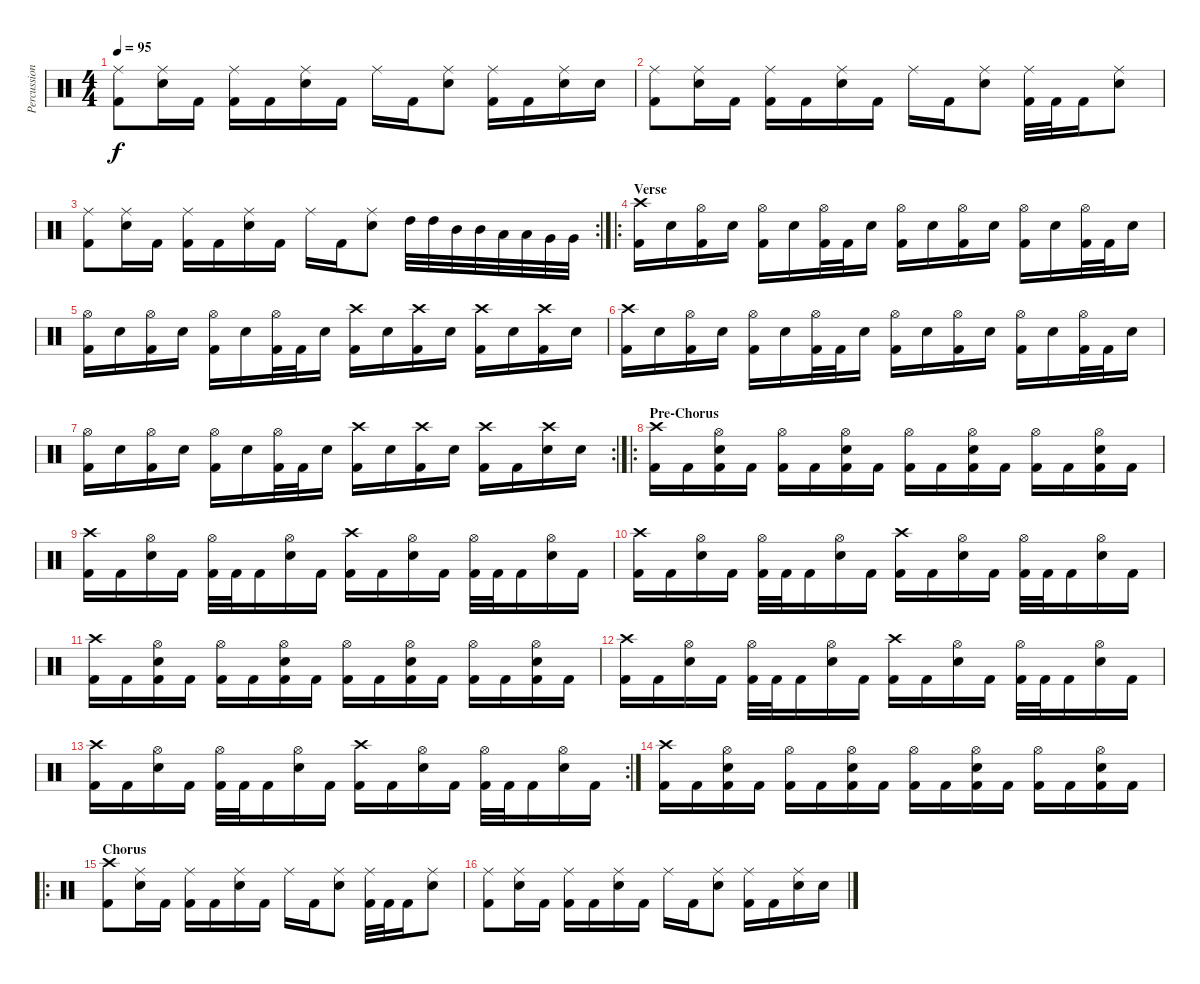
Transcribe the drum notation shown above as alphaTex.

\track ("Percussion" "Percussion") {instrument percussion}
\staff {score}
\articulation defaults
\ts (4 4)
\tempo 95
\clef neutral
\ks c
("Kick (hit) 2" "Ride (middle)").8{dy f} ("Ride (middle)" "Snare (hit) 2").16 "Kick (hit) 2".16 ("Kick (hit) 2" "Ride (middle)").16 "Kick (hit) 2".16 ("Ride (middle)" "Snare (hit) 2").16 "Kick (hit) 2".16 "Ride (middle)".16 "Kick (hit) 2".16 ("Ride (middle)" "Snare (hit) 2").8 ("Kick (hit) 2" "Ride (middle)").16 "Kick (hit) 2".16 ("Ride (middle)" "Snare (hit) 2").16 "Snare (hit) 2".16 |
("Kick (hit) 2" "Ride (middle)").8 ("Ride (middle)" "Snare (hit) 2").16 "Kick (hit) 2".16 ("Kick (hit) 2" "Ride (middle)").16 "Kick (hit) 2".16 ("Ride (middle)" "Snare (hit) 2").16 "Kick (hit) 2".16 "Ride (middle)".16 "Kick (hit) 2".16 ("Ride (middle)" "Snare (hit) 2").8 ("Kick (hit) 2" "Ride (middle)").32 "Kick (hit) 2".32 "Kick (hit) 2".16 ("Ride (middle)" "Snare (hit) 2").8 |
\rc 2
("Kick (hit) 2" "Ride (middle)").8 ("Ride (middle)" "Snare (hit) 2").16 "Kick (hit) 2".16 ("Kick (hit) 2" "Ride (middle)").16 "Kick (hit) 2".16 ("Ride (middle)" "Snare (hit) 2").16 "Kick (hit) 2".16 "Ride (middle)".16 "Kick (hit) 2".16 ("Ride (middle)" "Snare (hit) 2").8 "High Tom (hit)".32 "High Tom (hit)".32 "Mid Tom (hit)".32 "Mid Tom (hit)".32 "Low Tom (hit)".32 "Low Tom (hit)".32 "Very Low Tom (hit)".32 "Very Low Tom (hit)".32 |
\ro
\section ("" "Verse")
("Kick (hit) 2" "Crash high (hit)").16 "Snare (hit) 2".16 ("Kick (hit) 2" "Hi-Hat (open)").16 "Snare (hit) 2".16 ("Kick (hit) 2" "Hi-Hat (open)").16 "Snare (hit) 2".16 ("Kick (hit) 2" "Hi-Hat (open)").32 "Kick (hit) 2".32 "Snare (hit) 2".16 ("Kick (hit) 2" "Hi-Hat (open)").16 "Snare (hit) 2".16 ("Kick (hit) 2" "Hi-Hat (open)").16 "Snare (hit) 2".16 ("Kick (hit) 2" "Hi-Hat (open)").16 "Snare (hit) 2".16 ("Kick (hit) 2" "Hi-Hat (open)").32 "Kick (hit) 2".32 "Snare (hit) 2".16 |
("Kick (hit) 2" "Hi-Hat (open)").16 "Snare (hit) 2".16 ("Kick (hit) 2" "Hi-Hat (open)").16 "Snare (hit) 2".16 ("Kick (hit) 2" "Hi-Hat (open)").16 "Snare (hit) 2".16 ("Kick (hit) 2" "Hi-Hat (open)").32 "Kick (hit) 2".32 "Snare (hit) 2".16 ("Kick (hit) 2" "Crash high (hit)").16 "Snare (hit) 2".16 ("Kick (hit) 2" "Crash high (hit)").16 "Snare (hit) 2".16 ("Kick (hit) 2" "Crash high (hit)").16 "Snare (hit) 2".16 ("Kick (hit) 2" "Crash high (hit)").16 "Snare (hit) 2".16 |
("Kick (hit) 2" "Crash high (hit)").16 "Snare (hit) 2".16 ("Kick (hit) 2" "Hi-Hat (open)").16 "Snare (hit) 2".16 ("Kick (hit) 2" "Hi-Hat (open)").16 "Snare (hit) 2".16 ("Kick (hit) 2" "Hi-Hat (open)").32 "Kick (hit) 2".32 "Snare (hit) 2".16 ("Kick (hit) 2" "Hi-Hat (open)").16 "Snare (hit) 2".16 ("Kick (hit) 2" "Hi-Hat (open)").16 "Snare (hit) 2".16 ("Kick (hit) 2" "Hi-Hat (open)").16 "Snare (hit) 2".16 ("Kick (hit) 2" "Hi-Hat (open)").32 "Kick (hit) 2".32 "Snare (hit) 2".16 |
\rc 2
("Kick (hit) 2" "Hi-Hat (open)").16 "Snare (hit) 2".16 ("Kick (hit) 2" "Hi-Hat (open)").16 "Snare (hit) 2".16 ("Kick (hit) 2" "Hi-Hat (open)").16 "Snare (hit) 2".16 ("Kick (hit) 2" "Hi-Hat (open)").32 "Kick (hit) 2".32 "Snare (hit) 2".16 ("Kick (hit) 2" "Crash high (hit)").16 "Snare (hit) 2".16 ("Kick (hit) 2" "Crash high (hit)").16 "Snare (hit) 2".16 ("Kick (hit) 2" "Crash high (hit)").16 "Kick (hit) 2".16 ("Crash high (hit)" "Snare (hit) 2").16 "Snare (hit) 2".16 |
\ro
\section ("" "Pre-Chorus")
("Kick (hit) 2" "Crash high (hit)").16 "Kick (hit) 2".16 ("Kick (hit) 2" "Snare (hit) 2" "Hi-Hat (open)").16 "Kick (hit) 2".16 ("Kick (hit) 2" "Hi-Hat (open)").16 "Kick (hit) 2".16 ("Kick (hit) 2" "Snare (hit) 2" "Hi-Hat (open)").16 "Kick (hit) 2".16 ("Kick (hit) 2" "Hi-Hat (open)").16 "Kick (hit) 2".16 ("Kick (hit) 2" "Snare (hit) 2" "Hi-Hat (open)").16 "Kick (hit) 2".16 ("Kick (hit) 2" "Hi-Hat (open)").16 "Kick (hit) 2".16 ("Kick (hit) 2" "Snare (hit) 2" "Hi-Hat (open)").16 "Kick (hit) 2".16 |
("Kick (hit) 2" "Crash high (hit)").16 "Kick (hit) 2".16 ("Snare (hit) 2" "Hi-Hat (open)").16 "Kick (hit) 2".16 ("Kick (hit) 2" "Hi-Hat (open)").32 "Kick (hit) 2".32 "Kick (hit) 2".16 ("Snare (hit) 2" "Hi-Hat (open)").16 "Kick (hit) 2".16 ("Kick (hit) 2" "Crash high (hit)").16 "Kick (hit) 2".16 ("Snare (hit) 2" "Hi-Hat (open)").16 "Kick (hit) 2".16 ("Kick (hit) 2" "Hi-Hat (open)").32 "Kick (hit) 2".32 "Kick (hit) 2".16 ("Snare (hit) 2" "Hi-Hat (open)").16 "Kick (hit) 2".16 |
("Kick (hit) 2" "Crash high (hit)").16 "Kick (hit) 2".16 ("Snare (hit) 2" "Hi-Hat (open)").16 "Kick (hit) 2".16 ("Kick (hit) 2" "Hi-Hat (open)").32 "Kick (hit) 2".32 "Kick (hit) 2".16 ("Snare (hit) 2" "Hi-Hat (open)").16 "Kick (hit) 2".16 ("Kick (hit) 2" "Crash high (hit)").16 "Kick (hit) 2".16 ("Snare (hit) 2" "Hi-Hat (open)").16 "Kick (hit) 2".16 ("Kick (hit) 2" "Hi-Hat (open)").32 "Kick (hit) 2".32 "Kick (hit) 2".16 ("Snare (hit) 2" "Hi-Hat (open)").16 "Kick (hit) 2".16 |
("Kick (hit) 2" "Crash high (hit)").16 "Kick (hit) 2".16 ("Kick (hit) 2" "Snare (hit) 2" "Hi-Hat (open)").16 "Kick (hit) 2".16 ("Kick (hit) 2" "Hi-Hat (open)").16 "Kick (hit) 2".16 ("Kick (hit) 2" "Snare (hit) 2" "Hi-Hat (open)").16 "Kick (hit) 2".16 ("Kick (hit) 2" "Hi-Hat (open)").16 "Kick (hit) 2".16 ("Kick (hit) 2" "Snare (hit) 2" "Hi-Hat (open)").16 "Kick (hit) 2".16 ("Kick (hit) 2" "Hi-Hat (open)").16 "Kick (hit) 2".16 ("Kick (hit) 2" "Snare (hit) 2" "Hi-Hat (open)").16 "Kick (hit) 2".16 |
("Kick (hit) 2" "Crash high (hit)").16 "Kick (hit) 2".16 ("Snare (hit) 2" "Hi-Hat (open)").16 "Kick (hit) 2".16 ("Kick (hit) 2" "Hi-Hat (open)").32 "Kick (hit) 2".32 "Kick (hit) 2".16 ("Snare (hit) 2" "Hi-Hat (open)").16 "Kick (hit) 2".16 ("Kick (hit) 2" "Crash high (hit)").16 "Kick (hit) 2".16 ("Snare (hit) 2" "Hi-Hat (open)").16 "Kick (hit) 2".16 ("Kick (hit) 2" "Hi-Hat (open)").32 "Kick (hit) 2".32 "Kick (hit) 2".16 ("Snare (hit) 2" "Hi-Hat (open)").16 "Kick (hit) 2".16 |
\rc 2
("Kick (hit) 2" "Crash high (hit)").16 "Kick (hit) 2".16 ("Snare (hit) 2" "Hi-Hat (open)").16 "Kick (hit) 2".16 ("Kick (hit) 2" "Hi-Hat (open)").32 "Kick (hit) 2".32 "Kick (hit) 2".16 ("Snare (hit) 2" "Hi-Hat (open)").16 "Kick (hit) 2".16 ("Kick (hit) 2" "Crash high (hit)").16 "Kick (hit) 2".16 ("Snare (hit) 2" "Hi-Hat (open)").16 "Kick (hit) 2".16 ("Kick (hit) 2" "Hi-Hat (open)").32 "Kick (hit) 2".32 "Kick (hit) 2".16 ("Snare (hit) 2" "Hi-Hat (open)").16 "Kick (hit) 2".16 |
("Kick (hit) 2" "Crash high (hit)").16 "Kick (hit) 2".16 ("Kick (hit) 2" "Snare (hit) 2" "Hi-Hat (open)").16 "Kick (hit) 2".16 ("Kick (hit) 2" "Hi-Hat (open)").16 "Kick (hit) 2".16 ("Kick (hit) 2" "Snare (hit) 2" "Hi-Hat (open)").16 "Kick (hit) 2".16 ("Kick (hit) 2" "Hi-Hat (open)").16 "Kick (hit) 2".16 ("Kick (hit) 2" "Snare (hit) 2" "Hi-Hat (open)").16 "Kick (hit) 2".16 ("Kick (hit) 2" "Hi-Hat (open)").16 "Kick (hit) 2".16 ("Kick (hit) 2" "Snare (hit) 2" "Hi-Hat (open)").16 "Kick (hit) 2".16 |
\ro
\section ("" "Chorus")
("Kick (hit) 2" "Crash high (hit)").8 ("Ride (middle)" "Snare (hit) 2").16 "Kick (hit) 2".16 ("Kick (hit) 2" "Ride (middle)").16 "Kick (hit) 2".16 ("Ride (middle)" "Snare (hit) 2").16 "Kick (hit) 2".16 "Ride (middle)".16 "Kick (hit) 2".16 ("Ride (middle)" "Snare (hit) 2").8 ("Kick (hit) 2" "Ride (middle)").32 "Kick (hit) 2".32 "Kick (hit) 2".16 ("Ride (middle)" "Snare (hit) 2").8 |
("Kick (hit) 2" "Ride (middle)").8 ("Ride (middle)" "Snare (hit) 2").16 "Kick (hit) 2".16 ("Kick (hit) 2" "Ride (middle)").16 "Kick (hit) 2".16 ("Ride (middle)" "Snare (hit) 2").16 "Kick (hit) 2".16 "Ride (middle)".16 "Kick (hit) 2".16 ("Ride (middle)" "Snare (hit) 2").8 ("Kick (hit) 2" "Ride (middle)").16 "Kick (hit) 2".16 ("Ride (middle)" "Snare (hit) 2").16 "Snare (hit) 2".16
